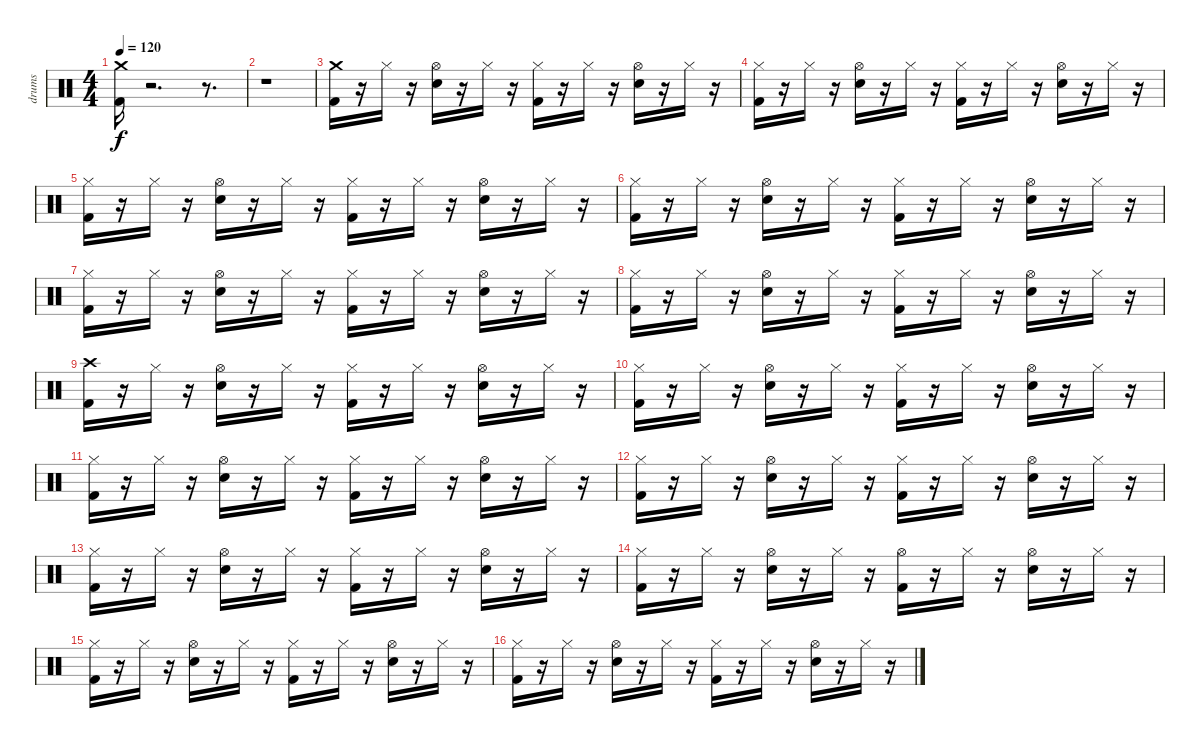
\track ("drums" "drums") {instrument percussion}
\staff {score}
\articulation defaults
\ts (4 4)
\tempo 120
\clef neutral
\ks c
("Crash medium (hit)" "Kick (hit) 2").16{dy f} r.2{d} r.8{d} |
r.1 |
("Crash medium (hit)" "Kick (hit) 2").16 r.16 "Hi-Hat (closed)".16 r.16 ("Hi-Hat (open)" "Electric Snare (hit)").16 r.16 "Hi-Hat (closed)".16 r.16 ("Hi-Hat (closed)" "Kick (hit) 2").16 r.16 "Hi-Hat (closed)".16 r.16 ("Electric Snare (hit)" "Hi-Hat (open)").16 r.16 "Hi-Hat (closed)".16 r.16 |
("Hi-Hat (closed)" "Kick (hit) 2").16 r.16 "Hi-Hat (closed)".16 r.16 ("Hi-Hat (open)" "Electric Snare (hit)").16 r.16 "Hi-Hat (closed)".16 r.16 ("Hi-Hat (closed)" "Kick (hit) 2").16 r.16 "Hi-Hat (closed)".16 r.16 ("Hi-Hat (open)" "Electric Snare (hit)").16 r.16 "Hi-Hat (closed)".16 r.16 |
("Hi-Hat (closed)" "Kick (hit) 2").16 r.16 "Hi-Hat (closed)".16 r.16 ("Hi-Hat (open)" "Electric Snare (hit)").16 r.16 "Hi-Hat (closed)".16 r.16 ("Hi-Hat (closed)" "Kick (hit) 2").16 r.16 "Hi-Hat (closed)".16 r.16 ("Hi-Hat (open)" "Snare (hit) 2").16 r.16 "Hi-Hat (closed)".16 r.16 |
("Hi-Hat (closed)" "Kick (hit) 2").16 r.16 "Hi-Hat (closed)".16 r.16 ("Hi-Hat (open)" "Electric Snare (hit)").16 r.16 "Hi-Hat (closed)".16 r.16 ("Hi-Hat (closed)" "Kick (hit) 2").16 r.16 "Hi-Hat (closed)".16 r.16 ("Hi-Hat (open)" "Electric Snare (hit)").16 r.16 "Hi-Hat (closed)".16 r.16 |
("Hi-Hat (closed)" "Kick (hit) 2").16 r.16 "Hi-Hat (closed)".16 r.16 ("Hi-Hat (open)" "Snare (hit) 2").16 r.16 "Hi-Hat (closed)".16 r.16 ("Hi-Hat (closed)" "Kick (hit) 2").16 r.16 "Hi-Hat (closed)".16 r.16 ("Hi-Hat (open)" "Snare (hit) 2").16 r.16 "Hi-Hat (closed)".16 r.16 |
("Hi-Hat (closed)" "Kick (hit) 2").16 r.16 "Hi-Hat (closed)".16 r.16 ("Hi-Hat (open)" "Snare (hit) 2").16 r.16 "Hi-Hat (closed)".16 r.16 ("Hi-Hat (closed)" "Kick (hit) 2").16 r.16 "Hi-Hat (closed)".16 r.16 ("Hi-Hat (open)" "Snare (hit) 2").16 r.16 "Hi-Hat (closed)".16 r.16 |
("Crash high (hit)" "Kick (hit) 2").16 r.16 "Hi-Hat (closed)".16 r.16 ("Hi-Hat (open)" "Electric Snare (hit)").16 r.16 "Hi-Hat (closed)".16 r.16 ("Hi-Hat (closed)" "Kick (hit) 2").16 r.16 "Hi-Hat (closed)".16 r.16 ("Hi-Hat (open)" "Snare (hit) 2").16 r.16 "Hi-Hat (closed)".16 r.16 |
("Hi-Hat (closed)" "Kick (hit) 2").16 r.16 "Hi-Hat (closed)".16 r.16 ("Hi-Hat (open)" "Snare (hit) 2").16 r.16 "Hi-Hat (closed)".16 r.16 ("Hi-Hat (closed)" "Kick (hit) 2").16 r.16 "Hi-Hat (closed)".16 r.16 ("Hi-Hat (open)" "Snare (hit) 2").16 r.16 "Hi-Hat (closed)".16 r.16 |
("Hi-Hat (closed)" "Kick (hit) 2").16 r.16 "Hi-Hat (closed)".16 r.16 ("Hi-Hat (open)" "Electric Snare (hit)").16 r.16 "Hi-Hat (closed)".16 r.16 ("Hi-Hat (closed)" "Kick (hit) 2").16 r.16 "Hi-Hat (closed)".16 r.16 ("Hi-Hat (open)" "Electric Snare (hit)").16 r.16 "Hi-Hat (closed)".16 r.16 |
("Hi-Hat (closed)" "Kick (hit) 2").16 r.16 "Hi-Hat (closed)".16 r.16 ("Hi-Hat (open)" "Snare (hit) 2").16 r.16 "Hi-Hat (closed)".16 r.16 ("Hi-Hat (closed)" "Kick (hit) 2").16 r.16 "Hi-Hat (closed)".16 r.16 ("Hi-Hat (open)" "Electric Snare (hit)").16 r.16 "Hi-Hat (closed)".16 r.16 |
("Hi-Hat (closed)" "Kick (hit) 2").16 r.16 "Hi-Hat (closed)".16 r.16 ("Hi-Hat (open)" "Snare (hit) 2").16 r.16 "Hi-Hat (closed)".16 r.16 ("Hi-Hat (closed)" "Kick (hit) 2").16 r.16 "Hi-Hat (closed)".16 r.16 ("Hi-Hat (open)" "Electric Snare (hit)").16 r.16 "Hi-Hat (closed)".16 r.16 |
("Hi-Hat (closed)" "Kick (hit) 2").16 r.16 "Hi-Hat (closed)".16 r.16 ("Hi-Hat (open)" "Snare (hit) 2").16 r.16 "Hi-Hat (closed)".16 r.16 ("Hi-Hat (open)" "Kick (hit) 2").16 r.16 "Hi-Hat (closed)".16 r.16 ("Hi-Hat (open)" "Electric Snare (hit)").16 r.16 "Hi-Hat (closed)".16 r.16 |
("Hi-Hat (closed)" "Kick (hit) 2").16 r.16 "Hi-Hat (closed)".16 r.16 ("Hi-Hat (open)" "Snare (hit) 2").16 r.16 "Hi-Hat (closed)".16 r.16 ("Hi-Hat (closed)" "Kick (hit) 2").16 r.16 "Hi-Hat (closed)".16 r.16 ("Hi-Hat (open)" "Snare (hit) 2").16 r.16 "Hi-Hat (closed)".16 r.16 |
("Hi-Hat (closed)" "Kick (hit) 2").16 r.16 "Hi-Hat (closed)".16 r.16 ("Hi-Hat (open)" "Snare (hit) 2").16 r.16 "Hi-Hat (closed)".16 r.16 ("Hi-Hat (closed)" "Kick (hit) 2").16 r.16 "Hi-Hat (closed)".16 r.16 ("Hi-Hat (open)" "Electric Snare (hit)").16 r.16 "Hi-Hat (closed)".16 r.16
